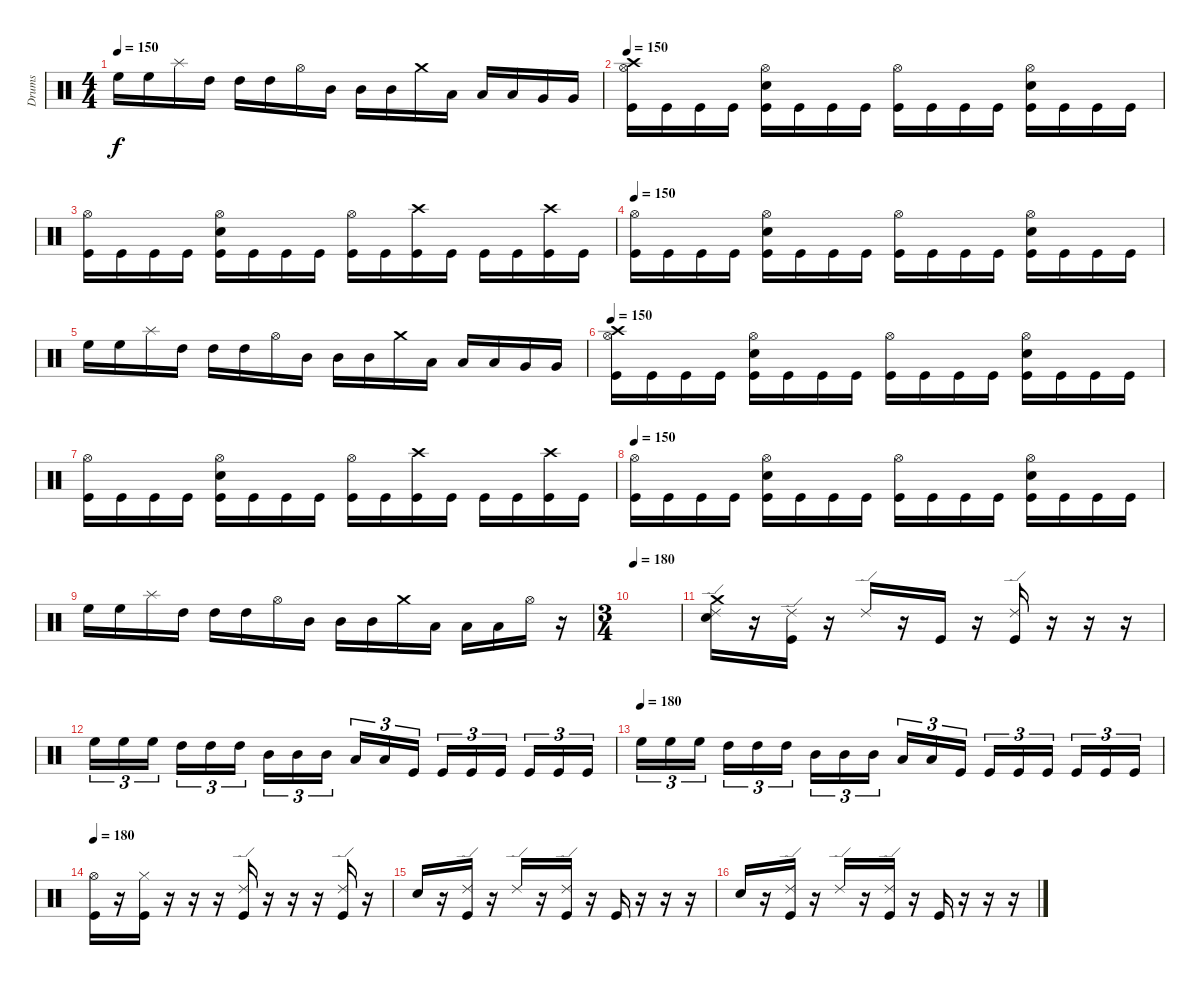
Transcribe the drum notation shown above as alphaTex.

\track ("Drums" "Drums") {instrument percussion}
\staff {score}
\articulation defaults
\ts (4 4)
\tempo 150
\clef neutral
\ks c "High Floor Tom (hit)".16{dy f} "High Floor Tom (hit)".16 "Splash (hit)".16 "High Tom (hit)".16 "High Tom (hit)".16 "High Tom (hit)".16 "Hi-Hat (open)".16 "Mid Tom (hit)".16 "Mid Tom (hit)".16 "Mid Tom (hit)".16 "Crash medium (hit)".16 "Low Tom (hit)".16 "Low Tom (hit)".16 "Low Tom (hit)".16 "Very Low Tom (hit)".16 "Very Low Tom (hit)".16
|
\tempo 150
("Crash high (hit)" "Hi-Hat (open)" "Kick (hit)").16 "Kick (hit)".16 "Kick (hit)".16 "Kick (hit)".16 ("Hi-Hat (open)" "Electric Snare (hit)" "Kick (hit)").16 "Kick (hit)".16 "Kick (hit)".16 "Kick (hit)".16 ("Hi-Hat (open)" "Kick (hit)").16 "Kick (hit)".16 "Kick (hit)".16 "Kick (hit)".16 ("Hi-Hat (open)" "Electric Snare (hit)" "Kick (hit)").16 "Kick (hit)".16 "Kick (hit)".16 "Kick (hit)".16 |
("Hi-Hat (open)" "Kick (hit)").16 "Kick (hit)".16 "Kick (hit)".16 "Kick (hit)".16 ("Hi-Hat (open)" "Electric Snare (hit)" "Kick (hit)").16 "Kick (hit)".16 "Kick (hit)".16 "Kick (hit)".16 ("Hi-Hat (open)" "Kick (hit)").16 "Kick (hit)".16 ("Kick (hit)" "Crash high (hit)").16 "Kick (hit)".16 "Kick (hit)".16 "Kick (hit)".16 ("Kick (hit)" "Crash high (hit)").16 "Kick (hit)".16 |
\tempo 150
("Hi-Hat (open)" "Kick (hit)").16 "Kick (hit)".16 "Kick (hit)".16 "Kick (hit)".16 ("Hi-Hat (open)" "Electric Snare (hit)" "Kick (hit)").16 "Kick (hit)".16 "Kick (hit)".16 "Kick (hit)".16 ("Hi-Hat (open)" "Kick (hit)").16 "Kick (hit)".16 "Kick (hit)".16 "Kick (hit)".16 ("Hi-Hat (open)" "Electric Snare (hit)" "Kick (hit)").16 "Kick (hit)".16 "Kick (hit)".16 "Kick (hit)".16 |
"High Floor Tom (hit)".16 "High Floor Tom (hit)".16 "Splash (hit)".16 "High Tom (hit)".16 "High Tom (hit)".16 "High Tom (hit)".16 "Hi-Hat (open)".16 "Mid Tom (hit)".16 "Mid Tom (hit)".16 "Mid Tom (hit)".16 "Crash medium (hit)".16 "Low Tom (hit)".16 "Low Tom (hit)".16 "Low Tom (hit)".16 "Very Low Tom (hit)".16 "Very Low Tom (hit)".16 |
\tempo 150
("Crash high (hit)" "Hi-Hat (open)" "Kick (hit)").16 "Kick (hit)".16 "Kick (hit)".16 "Kick (hit)".16 ("Hi-Hat (open)" "Electric Snare (hit)" "Kick (hit)").16 "Kick (hit)".16 "Kick (hit)".16 "Kick (hit)".16 ("Hi-Hat (open)" "Kick (hit)").16 "Kick (hit)".16 "Kick (hit)".16 "Kick (hit)".16 ("Hi-Hat (open)" "Electric Snare (hit)" "Kick (hit)").16 "Kick (hit)".16 "Kick (hit)".16 "Kick (hit)".16 |
("Hi-Hat (open)" "Kick (hit)").16 "Kick (hit)".16 "Kick (hit)".16 "Kick (hit)".16 ("Hi-Hat (open)" "Electric Snare (hit)" "Kick (hit)").16 "Kick (hit)".16 "Kick (hit)".16 "Kick (hit)".16 ("Hi-Hat (open)" "Kick (hit)").16 "Kick (hit)".16 ("Kick (hit)" "Crash high (hit)").16 "Kick (hit)".16 "Kick (hit)".16 "Kick (hit)".16 ("Kick (hit)" "Crash high (hit)").16 "Kick (hit)".16 |
\tempo 150
("Hi-Hat (open)" "Kick (hit)").16 "Kick (hit)".16 "Kick (hit)".16 "Kick (hit)".16 ("Hi-Hat (open)" "Electric Snare (hit)" "Kick (hit)").16 "Kick (hit)".16 "Kick (hit)".16 "Kick (hit)".16 ("Hi-Hat (open)" "Kick (hit)").16 "Kick (hit)".16 "Kick (hit)".16 "Kick (hit)".16 ("Hi-Hat (open)" "Electric Snare (hit)" "Kick (hit)").16 "Kick (hit)".16 "Kick (hit)".16 "Kick (hit)".16 |
"High Floor Tom (hit)".16 "High Floor Tom (hit)".16 "Splash (hit)".16 "High Tom (hit)".16 "High Tom (hit)".16 "High Tom (hit)".16 "Hi-Hat (open)".16 "Mid Tom (hit)".16 "Mid Tom (hit)".16 "Mid Tom (hit)".16 "Crash medium (hit)".16 "Low Tom (hit)".16 "Low Tom (hit)".16 "Low Tom (hit)".16 "Hi-Hat (open)".16 r.16 |
\ts (3 4)
\tempo 180
|
("Crash medium (hit)" "Ride (edge) 2" "Electric Snare (hit)").16 r.16 ("Ride (edge) 2" "Kick (hit)").16 r.16 "Ride (edge) 2".16 r.16 "Kick (hit)".16 r.16 ("Ride (edge) 2" "Kick (hit)").16 r.16 r.16 r.16 |
"High Floor Tom (hit)".16{tu (3 2)} "High Floor Tom (hit)".16{tu (3 2)} "High Floor Tom (hit)".16{tu (3 2)} "High Tom (hit)".16{tu (3 2)} "High Tom (hit)".16{tu (3 2)} "High Tom (hit)".16{tu (3 2)} "Mid Tom (hit)".16{tu (3 2)} "Mid Tom (hit)".16{tu (3 2)} "Mid Tom (hit)".16{tu (3 2)} "Low Tom (hit)".16{tu (3 2)} "Low Tom (hit)".16{tu (3 2)} "Kick (hit)".16{tu (3 2)} "Kick (hit)".16{tu (3 2)} "Kick (hit)".16{tu (3 2)} "Kick (hit)".16{tu (3 2)} "Kick (hit)".16{tu (3 2)} "Kick (hit)".16{tu (3 2)} "Kick (hit)".16{tu (3 2)} |
\tempo (180)
"High Floor Tom (hit)".16{tu (3 2)} "High Floor Tom (hit)".16{tu (3 2)} "High Floor Tom (hit)".16{tu (3 2)} "High Tom (hit)".16{tu (3 2)} "High Tom (hit)".16{tu (3 2)} "High Tom (hit)".16{tu (3 2)} "Mid Tom (hit)".16{tu (3 2)} "Mid Tom (hit)".16{tu (3 2)} "Mid Tom (hit)".16{tu (3 2)} "Low Tom (hit)".16{tu (3 2)} "Low Tom (hit)".16{tu (3 2)} "Kick (hit)".16{tu (3 2)} "Kick (hit)".16{tu (3 2)} "Kick (hit)".16{tu (3 2)} "Kick (hit)".16{tu (3 2)} "Kick (hit)".16{tu (3 2)} "Kick (hit)".16{tu (3 2)} "Kick (hit)".16{tu (3 2)} |
\tempo 180
("Hi-Hat (open)" "Kick (hit)").16 r.16 ("Hi-Hat (closed)" "Kick (hit)").16 r.16 r.16 r.16 ("Ride (edge) 2" "Kick (hit)").16 r.16 r.16 r.16 ("Ride (edge) 2" "Kick (hit)").16 r.16 |
"Electric Snare (hit)".16 r.16 ("Ride (edge) 2" "Kick (hit)").16 r.16 "Ride (edge) 2".16 r.16 ("Ride (edge) 2" "Kick (hit)").16 r.16 "Kick (hit)".16 r.16 r.16 r.16 |
"Electric Snare (hit)".16 r.16 ("Ride (edge) 2" "Kick (hit)").16 r.16 "Ride (edge) 2".16 r.16 ("Ride (edge) 2" "Kick (hit)").16 r.16 "Kick (hit)".16 r.16 r.16 r.16
